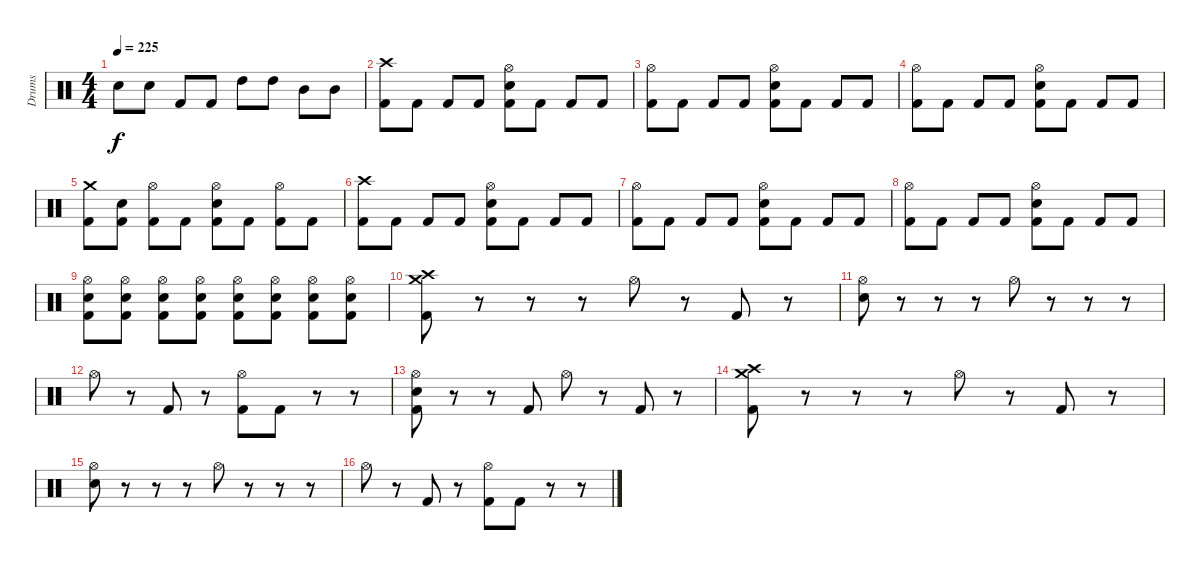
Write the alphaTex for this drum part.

\track ("Drums" "Drums") {instrument percussion}
\staff {score}
\articulation defaults
\ts (4 4)
\tempo 225
\clef neutral
\ks c "Electric Snare (hit)".8{dy f} "Electric Snare (hit)".8 "Kick (hit) 2".8 "Kick (hit) 2".8 "High Tom (hit)".8 "High Tom (hit)".8 "Mid Tom (hit)".8 "Mid Tom (hit)".8
|
("Crash high (hit)" "Kick (hit) 2").8 "Kick (hit) 2".8 "Kick (hit) 2".8 "Kick (hit) 2".8 ("Hi-Hat (open)" "Electric Snare (hit)" "Kick (hit) 2").8 "Kick (hit) 2".8 "Kick (hit) 2".8 "Kick (hit) 2".8 |
("Hi-Hat (open)" "Kick (hit) 2").8 "Kick (hit) 2".8 "Kick (hit) 2".8 "Kick (hit) 2".8 ("Hi-Hat (open)" "Electric Snare (hit)" "Kick (hit) 2").8 "Kick (hit) 2".8 "Kick (hit) 2".8 "Kick (hit) 2".8 |
("Hi-Hat (open)" "Kick (hit) 2").8 "Kick (hit) 2".8 "Kick (hit) 2".8 "Kick (hit) 2".8 ("Hi-Hat (open)" "Electric Snare (hit)" "Kick (hit) 2").8 "Kick (hit) 2".8 "Kick (hit) 2".8 "Kick (hit) 2".8 |
("Crash medium (hit)" "Kick (hit) 2").8 ("Electric Snare (hit)" "Kick (hit) 2").8 ("Hi-Hat (open)" "Kick (hit) 2").8 "Kick (hit) 2".8 ("Hi-Hat (open)" "Electric Snare (hit)" "Kick (hit) 2").8 "Kick (hit) 2".8 ("Hi-Hat (open)" "Kick (hit) 2").8 "Kick (hit) 2".8 |
("Crash high (hit)" "Kick (hit) 2").8 "Kick (hit) 2".8 "Kick (hit) 2".8 "Kick (hit) 2".8 ("Hi-Hat (open)" "Electric Snare (hit)" "Kick (hit) 2").8 "Kick (hit) 2".8 "Kick (hit) 2".8 "Kick (hit) 2".8 |
("Hi-Hat (open)" "Kick (hit) 2").8 "Kick (hit) 2".8 "Kick (hit) 2".8 "Kick (hit) 2".8 ("Hi-Hat (open)" "Electric Snare (hit)" "Kick (hit) 2").8 "Kick (hit) 2".8 "Kick (hit) 2".8 "Kick (hit) 2".8 |
("Hi-Hat (open)" "Kick (hit) 2").8 "Kick (hit) 2".8 "Kick (hit) 2".8 "Kick (hit) 2".8 ("Hi-Hat (open)" "Electric Snare (hit)" "Kick (hit) 2").8 "Kick (hit) 2".8 "Kick (hit) 2".8 "Kick (hit) 2".8 |
("Hi-Hat (open)" "Electric Snare (hit)" "Kick (hit) 2").8 ("Hi-Hat (open)" "Electric Snare (hit)" "Kick (hit) 2").8 ("Hi-Hat (open)" "Electric Snare (hit)" "Kick (hit) 2").8 ("Hi-Hat (open)" "Electric Snare (hit)" "Kick (hit) 2").8 ("Hi-Hat (open)" "Electric Snare (hit)" "Kick (hit) 2").8 ("Hi-Hat (open)" "Electric Snare (hit)" "Kick (hit) 2").8 ("Hi-Hat (open)" "Electric Snare (hit)" "Kick (hit) 2").8 ("Hi-Hat (open)" "Electric Snare (hit)" "Kick (hit) 2").8 |
("Crash medium (hit)" "Crash high (hit)" "Kick (hit) 2").8 r.8 r.8 r.8 "Hi-Hat (open)".8 r.8 "Kick (hit) 2".8 r.8 |
("Hi-Hat (open)" "Electric Snare (hit)").8 r.8 r.8 r.8 "Hi-Hat (open)".8 r.8 r.8 r.8 |
"Hi-Hat (open)".8 r.8 "Kick (hit) 2".8 r.8 ("Hi-Hat (open)" "Kick (hit) 2").8 "Kick (hit) 2".8 r.8 r.8 |
("Hi-Hat (open)" "Electric Snare (hit)" "Kick (hit) 2").8 r.8 r.8 "Kick (hit) 2".8 "Hi-Hat (open)".8 r.8 "Kick (hit) 2".8 r.8 |
("Crash medium (hit)" "Crash high (hit)" "Kick (hit) 2").8 r.8 r.8 r.8 "Hi-Hat (open)".8 r.8 "Kick (hit) 2".8 r.8 |
("Hi-Hat (open)" "Electric Snare (hit)").8 r.8 r.8 r.8 "Hi-Hat (open)".8 r.8 r.8 r.8 |
"Hi-Hat (open)".8 r.8 "Kick (hit) 2".8 r.8 ("Hi-Hat (open)" "Kick (hit) 2").8 "Kick (hit) 2".8 r.8 r.8
